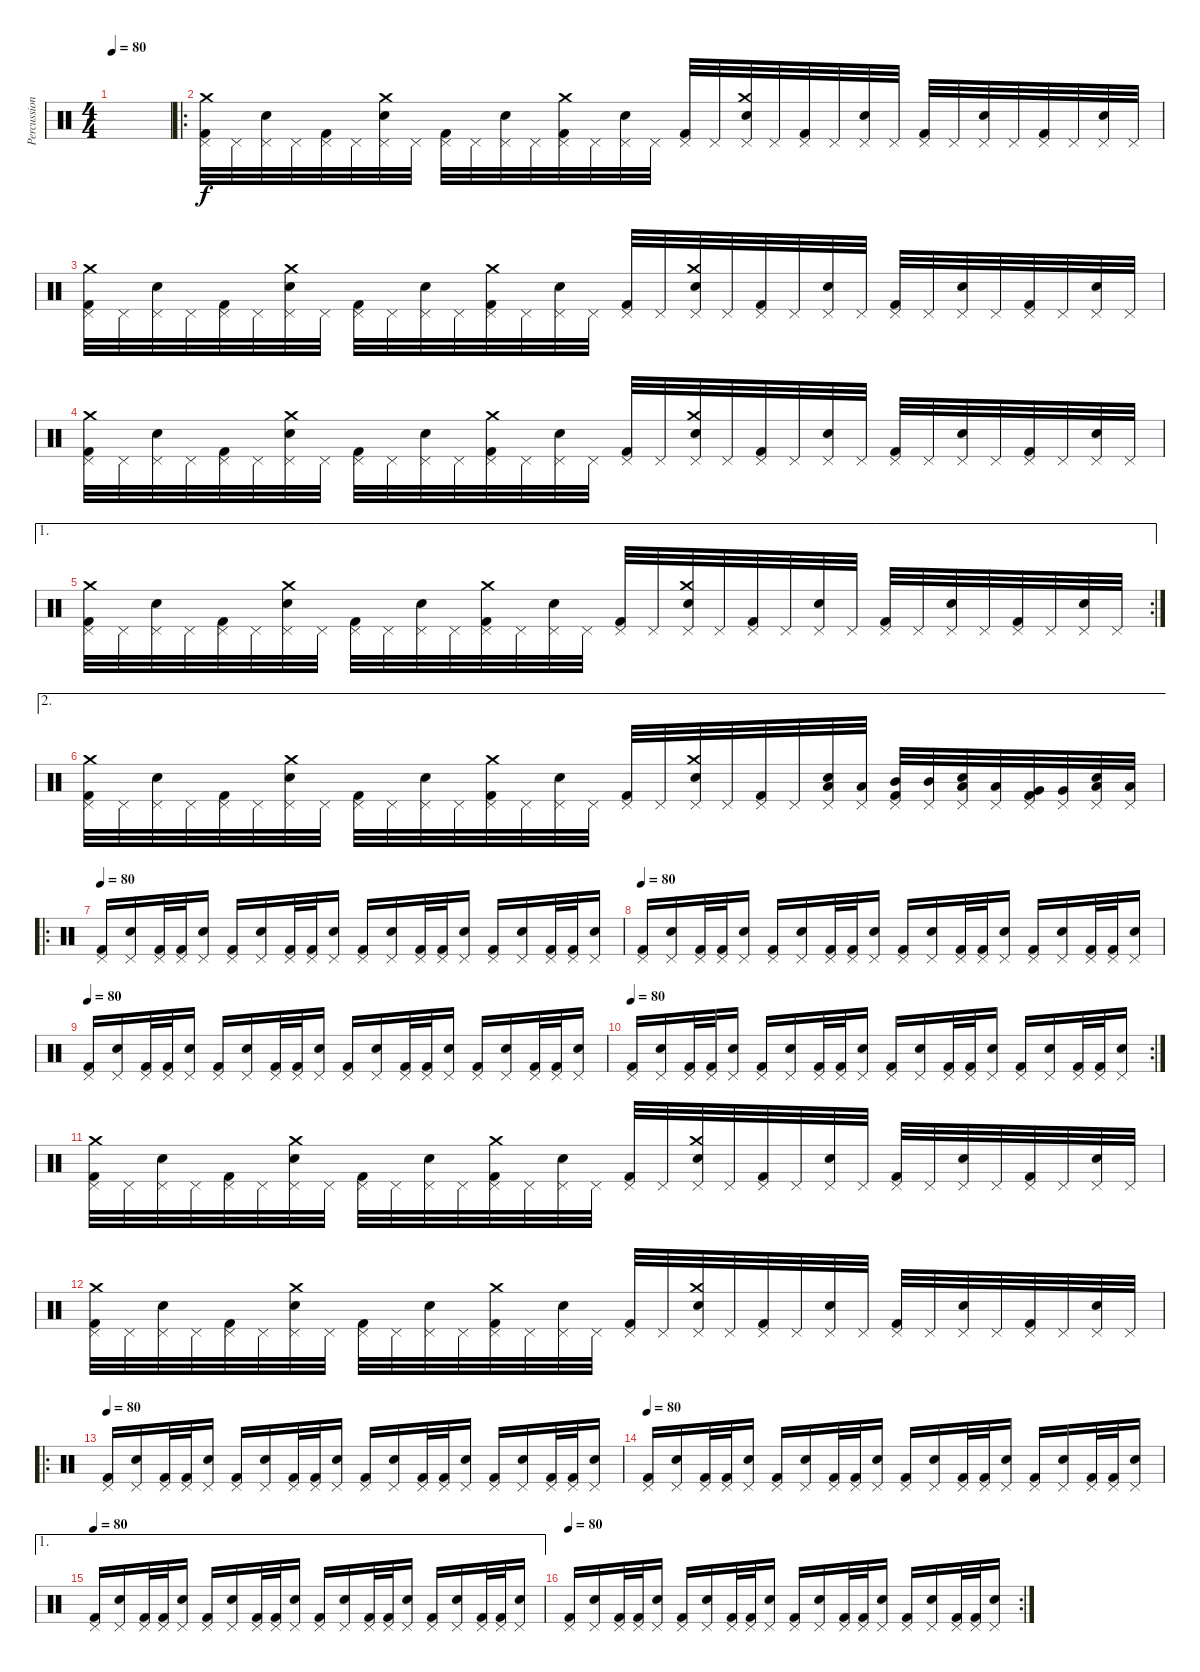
\track ("Percussion" "Percussion") {instrument percussion}
\staff {score}
\articulation defaults
\ts (4 4)
\tempo 80
\clef neutral
\ks c
|
\ro
("Kick (hit) 2" "Pedal Hi-Hat (hit)" "Crash medium (hit)").32 "Pedal Hi-Hat (hit)".32 ("Pedal Hi-Hat (hit)" "Electric Snare (hit)").32 "Pedal Hi-Hat (hit)".32 ("Kick (hit) 2" "Pedal Hi-Hat (hit)").32 "Pedal Hi-Hat (hit)".32 ("Pedal Hi-Hat (hit)" "Electric Snare (hit)" "Crash medium (hit)").32 "Pedal Hi-Hat (hit)".32 ("Kick (hit) 2" "Pedal Hi-Hat (hit)").32 "Pedal Hi-Hat (hit)".32 ("Pedal Hi-Hat (hit)" "Electric Snare (hit)").32 "Pedal Hi-Hat (hit)".32 ("Kick (hit) 2" "Pedal Hi-Hat (hit)" "Crash medium (hit)").32 "Pedal Hi-Hat (hit)".32 ("Pedal Hi-Hat (hit)" "Electric Snare (hit)").32 "Pedal Hi-Hat (hit)".32 ("Kick (hit) 2" "Pedal Hi-Hat (hit)").32 "Pedal Hi-Hat (hit)".32 ("Pedal Hi-Hat (hit)" "Electric Snare (hit)" "Crash medium (hit)").32 "Pedal Hi-Hat (hit)".32 ("Kick (hit) 2" "Pedal Hi-Hat (hit)").32 "Pedal Hi-Hat (hit)".32 ("Pedal Hi-Hat (hit)" "Electric Snare (hit)").32 "Pedal Hi-Hat (hit)".32 ("Kick (hit) 2" "Pedal Hi-Hat (hit)").32 "Pedal Hi-Hat (hit)".32 ("Pedal Hi-Hat (hit)" "Electric Snare (hit)").32 "Pedal Hi-Hat (hit)".32 ("Kick (hit) 2" "Pedal Hi-Hat (hit)").32 "Pedal Hi-Hat (hit)".32 ("Pedal Hi-Hat (hit)" "Electric Snare (hit)").32 "Pedal Hi-Hat (hit)".32 |
("Kick (hit) 2" "Pedal Hi-Hat (hit)" "Crash medium (hit)").32 "Pedal Hi-Hat (hit)".32 ("Pedal Hi-Hat (hit)" "Electric Snare (hit)").32 "Pedal Hi-Hat (hit)".32 ("Kick (hit) 2" "Pedal Hi-Hat (hit)").32 "Pedal Hi-Hat (hit)".32 ("Pedal Hi-Hat (hit)" "Electric Snare (hit)" "Crash medium (hit)").32 "Pedal Hi-Hat (hit)".32 ("Kick (hit) 2" "Pedal Hi-Hat (hit)").32 "Pedal Hi-Hat (hit)".32 ("Pedal Hi-Hat (hit)" "Electric Snare (hit)").32 "Pedal Hi-Hat (hit)".32 ("Kick (hit) 2" "Pedal Hi-Hat (hit)" "Crash medium (hit)").32 "Pedal Hi-Hat (hit)".32 ("Pedal Hi-Hat (hit)" "Electric Snare (hit)").32 "Pedal Hi-Hat (hit)".32 ("Kick (hit) 2" "Pedal Hi-Hat (hit)").32 "Pedal Hi-Hat (hit)".32 ("Pedal Hi-Hat (hit)" "Electric Snare (hit)" "Crash medium (hit)").32 "Pedal Hi-Hat (hit)".32 ("Kick (hit) 2" "Pedal Hi-Hat (hit)").32 "Pedal Hi-Hat (hit)".32 ("Pedal Hi-Hat (hit)" "Electric Snare (hit)").32 "Pedal Hi-Hat (hit)".32 ("Kick (hit) 2" "Pedal Hi-Hat (hit)").32 "Pedal Hi-Hat (hit)".32 ("Pedal Hi-Hat (hit)" "Electric Snare (hit)").32 "Pedal Hi-Hat (hit)".32 ("Kick (hit) 2" "Pedal Hi-Hat (hit)").32 "Pedal Hi-Hat (hit)".32 ("Pedal Hi-Hat (hit)" "Electric Snare (hit)").32 "Pedal Hi-Hat (hit)".32 |
("Kick (hit) 2" "Pedal Hi-Hat (hit)" "Crash medium (hit)").32 "Pedal Hi-Hat (hit)".32 ("Pedal Hi-Hat (hit)" "Electric Snare (hit)").32 "Pedal Hi-Hat (hit)".32 ("Kick (hit) 2" "Pedal Hi-Hat (hit)").32 "Pedal Hi-Hat (hit)".32 ("Pedal Hi-Hat (hit)" "Electric Snare (hit)" "Crash medium (hit)").32 "Pedal Hi-Hat (hit)".32 ("Kick (hit) 2" "Pedal Hi-Hat (hit)").32 "Pedal Hi-Hat (hit)".32 ("Pedal Hi-Hat (hit)" "Electric Snare (hit)").32 "Pedal Hi-Hat (hit)".32 ("Kick (hit) 2" "Pedal Hi-Hat (hit)" "Crash medium (hit)").32 "Pedal Hi-Hat (hit)".32 ("Pedal Hi-Hat (hit)" "Electric Snare (hit)").32 "Pedal Hi-Hat (hit)".32 ("Kick (hit) 2" "Pedal Hi-Hat (hit)").32 "Pedal Hi-Hat (hit)".32 ("Pedal Hi-Hat (hit)" "Electric Snare (hit)" "Crash medium (hit)").32 "Pedal Hi-Hat (hit)".32 ("Kick (hit) 2" "Pedal Hi-Hat (hit)").32 "Pedal Hi-Hat (hit)".32 ("Pedal Hi-Hat (hit)" "Electric Snare (hit)").32 "Pedal Hi-Hat (hit)".32 ("Kick (hit) 2" "Pedal Hi-Hat (hit)").32 "Pedal Hi-Hat (hit)".32 ("Pedal Hi-Hat (hit)" "Electric Snare (hit)").32 "Pedal Hi-Hat (hit)".32 ("Kick (hit) 2" "Pedal Hi-Hat (hit)").32 "Pedal Hi-Hat (hit)".32 ("Pedal Hi-Hat (hit)" "Electric Snare (hit)").32 "Pedal Hi-Hat (hit)".32 |
\ae 1
\rc 2
("Kick (hit) 2" "Pedal Hi-Hat (hit)" "Crash medium (hit)").32 "Pedal Hi-Hat (hit)".32 ("Pedal Hi-Hat (hit)" "Electric Snare (hit)").32 "Pedal Hi-Hat (hit)".32 ("Kick (hit) 2" "Pedal Hi-Hat (hit)").32 "Pedal Hi-Hat (hit)".32 ("Pedal Hi-Hat (hit)" "Electric Snare (hit)" "Crash medium (hit)").32 "Pedal Hi-Hat (hit)".32 ("Kick (hit) 2" "Pedal Hi-Hat (hit)").32 "Pedal Hi-Hat (hit)".32 ("Pedal Hi-Hat (hit)" "Electric Snare (hit)").32 "Pedal Hi-Hat (hit)".32 ("Kick (hit) 2" "Pedal Hi-Hat (hit)" "Crash medium (hit)").32 "Pedal Hi-Hat (hit)".32 ("Pedal Hi-Hat (hit)" "Electric Snare (hit)").32 "Pedal Hi-Hat (hit)".32 ("Kick (hit) 2" "Pedal Hi-Hat (hit)").32 "Pedal Hi-Hat (hit)".32 ("Pedal Hi-Hat (hit)" "Electric Snare (hit)" "Crash medium (hit)").32 "Pedal Hi-Hat (hit)".32 ("Kick (hit) 2" "Pedal Hi-Hat (hit)").32 "Pedal Hi-Hat (hit)".32 ("Pedal Hi-Hat (hit)" "Electric Snare (hit)").32 "Pedal Hi-Hat (hit)".32 ("Kick (hit) 2" "Pedal Hi-Hat (hit)").32 "Pedal Hi-Hat (hit)".32 ("Pedal Hi-Hat (hit)" "Electric Snare (hit)").32 "Pedal Hi-Hat (hit)".32 ("Kick (hit) 2" "Pedal Hi-Hat (hit)").32 "Pedal Hi-Hat (hit)".32 ("Pedal Hi-Hat (hit)" "Electric Snare (hit)").32 "Pedal Hi-Hat (hit)".32 |
\ae 2
("Kick (hit) 2" "Pedal Hi-Hat (hit)" "Crash medium (hit)").32 "Pedal Hi-Hat (hit)".32 ("Pedal Hi-Hat (hit)" "Electric Snare (hit)").32 "Pedal Hi-Hat (hit)".32 ("Kick (hit) 2" "Pedal Hi-Hat (hit)").32 "Pedal Hi-Hat (hit)".32 ("Pedal Hi-Hat (hit)" "Electric Snare (hit)" "Crash medium (hit)").32 "Pedal Hi-Hat (hit)".32 ("Kick (hit) 2" "Pedal Hi-Hat (hit)").32 "Pedal Hi-Hat (hit)".32 ("Pedal Hi-Hat (hit)" "Electric Snare (hit)").32 "Pedal Hi-Hat (hit)".32 ("Kick (hit) 2" "Pedal Hi-Hat (hit)" "Crash medium (hit)").32 "Pedal Hi-Hat (hit)".32 ("Pedal Hi-Hat (hit)" "Electric Snare (hit)").32 "Pedal Hi-Hat (hit)".32 ("Kick (hit) 2" "Pedal Hi-Hat (hit)").32 "Pedal Hi-Hat (hit)".32 ("Pedal Hi-Hat (hit)" "Electric Snare (hit)" "Crash medium (hit)").32 "Pedal Hi-Hat (hit)".32 ("Kick (hit) 2" "Pedal Hi-Hat (hit)").32 "Pedal Hi-Hat (hit)".32 ("Pedal Hi-Hat (hit)" "Electric Snare (hit)" "Low Tom (hit)").32 ("Pedal Hi-Hat (hit)" "Low Tom (hit)").32 ("Kick (hit) 2" "Pedal Hi-Hat (hit)" "Mid Tom (hit)").32 ("Pedal Hi-Hat (hit)" "Mid Tom (hit)").32 ("Pedal Hi-Hat (hit)" "Electric Snare (hit)" "Low Tom (hit)").32 ("Pedal Hi-Hat (hit)" "Low Tom (hit)").32 ("Kick (hit) 2" "Pedal Hi-Hat (hit)" "Very Low Tom (hit)").32 ("Pedal Hi-Hat (hit)" "Very Low Tom (hit)").32 ("Pedal Hi-Hat (hit)" "Electric Snare (hit)" "Low Floor Tom (hit)").32 ("Pedal Hi-Hat (hit)" "Low Floor Tom (hit)").32 |
\ro
\tempo 80
("Kick (hit) 2" "Pedal Hi-Hat (hit)").16 ("Pedal Hi-Hat (hit)" "Electric Snare (hit)").16 ("Kick (hit) 2" "Pedal Hi-Hat (hit)").32 ("Kick (hit) 2" "Pedal Hi-Hat (hit)").32 ("Pedal Hi-Hat (hit)" "Electric Snare (hit)").16 ("Kick (hit) 2" "Pedal Hi-Hat (hit)").16 ("Pedal Hi-Hat (hit)" "Electric Snare (hit)").16 ("Kick (hit) 2" "Pedal Hi-Hat (hit)").32 ("Kick (hit) 2" "Pedal Hi-Hat (hit)").32 ("Pedal Hi-Hat (hit)" "Electric Snare (hit)").16 ("Kick (hit) 2" "Pedal Hi-Hat (hit)").16 ("Pedal Hi-Hat (hit)" "Electric Snare (hit)").16 ("Kick (hit) 2" "Pedal Hi-Hat (hit)").32 ("Kick (hit) 2" "Pedal Hi-Hat (hit)").32 ("Pedal Hi-Hat (hit)" "Electric Snare (hit)").16 ("Kick (hit) 2" "Pedal Hi-Hat (hit)").16 ("Pedal Hi-Hat (hit)" "Electric Snare (hit)").16 ("Kick (hit) 2" "Pedal Hi-Hat (hit)").32 ("Kick (hit) 2" "Pedal Hi-Hat (hit)").32 ("Pedal Hi-Hat (hit)" "Electric Snare (hit)").16 |
\tempo 80
("Kick (hit) 2" "Pedal Hi-Hat (hit)").16 ("Pedal Hi-Hat (hit)" "Electric Snare (hit)").16 ("Kick (hit) 2" "Pedal Hi-Hat (hit)").32 ("Kick (hit) 2" "Pedal Hi-Hat (hit)").32 ("Pedal Hi-Hat (hit)" "Electric Snare (hit)").16 ("Kick (hit) 2" "Pedal Hi-Hat (hit)").16 ("Pedal Hi-Hat (hit)" "Electric Snare (hit)").16 ("Kick (hit) 2" "Pedal Hi-Hat (hit)").32 ("Kick (hit) 2" "Pedal Hi-Hat (hit)").32 ("Pedal Hi-Hat (hit)" "Electric Snare (hit)").16 ("Kick (hit) 2" "Pedal Hi-Hat (hit)").16 ("Pedal Hi-Hat (hit)" "Electric Snare (hit)").16 ("Kick (hit) 2" "Pedal Hi-Hat (hit)").32 ("Kick (hit) 2" "Pedal Hi-Hat (hit)").32 ("Pedal Hi-Hat (hit)" "Electric Snare (hit)").16 ("Kick (hit) 2" "Pedal Hi-Hat (hit)").16 ("Pedal Hi-Hat (hit)" "Electric Snare (hit)").16 ("Kick (hit) 2" "Pedal Hi-Hat (hit)").32 ("Kick (hit) 2" "Pedal Hi-Hat (hit)").32 ("Pedal Hi-Hat (hit)" "Electric Snare (hit)").16 |
\tempo 80
("Kick (hit) 2" "Pedal Hi-Hat (hit)").16 ("Pedal Hi-Hat (hit)" "Electric Snare (hit)").16 ("Kick (hit) 2" "Pedal Hi-Hat (hit)").32 ("Kick (hit) 2" "Pedal Hi-Hat (hit)").32 ("Pedal Hi-Hat (hit)" "Electric Snare (hit)").16 ("Kick (hit) 2" "Pedal Hi-Hat (hit)").16 ("Pedal Hi-Hat (hit)" "Electric Snare (hit)").16 ("Kick (hit) 2" "Pedal Hi-Hat (hit)").32 ("Kick (hit) 2" "Pedal Hi-Hat (hit)").32 ("Pedal Hi-Hat (hit)" "Electric Snare (hit)").16 ("Kick (hit) 2" "Pedal Hi-Hat (hit)").16 ("Pedal Hi-Hat (hit)" "Electric Snare (hit)").16 ("Kick (hit) 2" "Pedal Hi-Hat (hit)").32 ("Kick (hit) 2" "Pedal Hi-Hat (hit)").32 ("Pedal Hi-Hat (hit)" "Electric Snare (hit)").16 ("Kick (hit) 2" "Pedal Hi-Hat (hit)").16 ("Pedal Hi-Hat (hit)" "Electric Snare (hit)").16 ("Kick (hit) 2" "Pedal Hi-Hat (hit)").32 ("Kick (hit) 2" "Pedal Hi-Hat (hit)").32 ("Pedal Hi-Hat (hit)" "Electric Snare (hit)").16 |
\rc 2
\tempo 80
("Kick (hit) 2" "Pedal Hi-Hat (hit)").16 ("Pedal Hi-Hat (hit)" "Electric Snare (hit)").16 ("Kick (hit) 2" "Pedal Hi-Hat (hit)").32 ("Kick (hit) 2" "Pedal Hi-Hat (hit)").32 ("Pedal Hi-Hat (hit)" "Electric Snare (hit)").16 ("Kick (hit) 2" "Pedal Hi-Hat (hit)").16 ("Pedal Hi-Hat (hit)" "Electric Snare (hit)").16 ("Kick (hit) 2" "Pedal Hi-Hat (hit)").32 ("Kick (hit) 2" "Pedal Hi-Hat (hit)").32 ("Pedal Hi-Hat (hit)" "Electric Snare (hit)").16 ("Kick (hit) 2" "Pedal Hi-Hat (hit)").16 ("Pedal Hi-Hat (hit)" "Electric Snare (hit)").16 ("Kick (hit) 2" "Pedal Hi-Hat (hit)").32 ("Kick (hit) 2" "Pedal Hi-Hat (hit)").32 ("Pedal Hi-Hat (hit)" "Electric Snare (hit)").16 ("Kick (hit) 2" "Pedal Hi-Hat (hit)").16 ("Pedal Hi-Hat (hit)" "Electric Snare (hit)").16 ("Kick (hit) 2" "Pedal Hi-Hat (hit)").32 ("Kick (hit) 2" "Pedal Hi-Hat (hit)").32 ("Pedal Hi-Hat (hit)" "Electric Snare (hit)").16 |
("Kick (hit) 2" "Pedal Hi-Hat (hit)" "Crash medium (hit)").32 "Pedal Hi-Hat (hit)".32 ("Pedal Hi-Hat (hit)" "Electric Snare (hit)").32 "Pedal Hi-Hat (hit)".32 ("Kick (hit) 2" "Pedal Hi-Hat (hit)").32 "Pedal Hi-Hat (hit)".32 ("Pedal Hi-Hat (hit)" "Electric Snare (hit)" "Crash medium (hit)").32 "Pedal Hi-Hat (hit)".32 ("Kick (hit) 2" "Pedal Hi-Hat (hit)").32 "Pedal Hi-Hat (hit)".32 ("Pedal Hi-Hat (hit)" "Electric Snare (hit)").32 "Pedal Hi-Hat (hit)".32 ("Kick (hit) 2" "Pedal Hi-Hat (hit)" "Crash medium (hit)").32 "Pedal Hi-Hat (hit)".32 ("Pedal Hi-Hat (hit)" "Electric Snare (hit)").32 "Pedal Hi-Hat (hit)".32 ("Kick (hit) 2" "Pedal Hi-Hat (hit)").32 "Pedal Hi-Hat (hit)".32 ("Pedal Hi-Hat (hit)" "Electric Snare (hit)" "Crash medium (hit)").32 "Pedal Hi-Hat (hit)".32 ("Kick (hit) 2" "Pedal Hi-Hat (hit)").32 "Pedal Hi-Hat (hit)".32 ("Pedal Hi-Hat (hit)" "Electric Snare (hit)").32 "Pedal Hi-Hat (hit)".32 ("Kick (hit) 2" "Pedal Hi-Hat (hit)").32 "Pedal Hi-Hat (hit)".32 ("Pedal Hi-Hat (hit)" "Electric Snare (hit)").32 "Pedal Hi-Hat (hit)".32 ("Kick (hit) 2" "Pedal Hi-Hat (hit)").32 "Pedal Hi-Hat (hit)".32 ("Pedal Hi-Hat (hit)" "Electric Snare (hit)").32 "Pedal Hi-Hat (hit)".32 |
("Kick (hit) 2" "Pedal Hi-Hat (hit)" "Crash medium (hit)").32 "Pedal Hi-Hat (hit)".32 ("Pedal Hi-Hat (hit)" "Electric Snare (hit)").32 "Pedal Hi-Hat (hit)".32 ("Kick (hit) 2" "Pedal Hi-Hat (hit)").32 "Pedal Hi-Hat (hit)".32 ("Pedal Hi-Hat (hit)" "Electric Snare (hit)" "Crash medium (hit)").32 "Pedal Hi-Hat (hit)".32 ("Kick (hit) 2" "Pedal Hi-Hat (hit)").32 "Pedal Hi-Hat (hit)".32 ("Pedal Hi-Hat (hit)" "Electric Snare (hit)").32 "Pedal Hi-Hat (hit)".32 ("Kick (hit) 2" "Pedal Hi-Hat (hit)" "Crash medium (hit)").32 "Pedal Hi-Hat (hit)".32 ("Pedal Hi-Hat (hit)" "Electric Snare (hit)").32 "Pedal Hi-Hat (hit)".32 ("Kick (hit) 2" "Pedal Hi-Hat (hit)").32 "Pedal Hi-Hat (hit)".32 ("Pedal Hi-Hat (hit)" "Electric Snare (hit)" "Crash medium (hit)").32 "Pedal Hi-Hat (hit)".32 ("Kick (hit) 2" "Pedal Hi-Hat (hit)").32 "Pedal Hi-Hat (hit)".32 ("Pedal Hi-Hat (hit)" "Electric Snare (hit)").32 "Pedal Hi-Hat (hit)".32 ("Kick (hit) 2" "Pedal Hi-Hat (hit)").32 "Pedal Hi-Hat (hit)".32 ("Pedal Hi-Hat (hit)" "Electric Snare (hit)").32 "Pedal Hi-Hat (hit)".32 ("Kick (hit) 2" "Pedal Hi-Hat (hit)").32 "Pedal Hi-Hat (hit)".32 ("Pedal Hi-Hat (hit)" "Electric Snare (hit)").32 "Pedal Hi-Hat (hit)".32 |
\ro
\tempo 80
("Kick (hit) 2" "Pedal Hi-Hat (hit)").16 ("Pedal Hi-Hat (hit)" "Electric Snare (hit)").16 ("Kick (hit) 2" "Pedal Hi-Hat (hit)").32 ("Kick (hit) 2" "Pedal Hi-Hat (hit)").32 ("Pedal Hi-Hat (hit)" "Electric Snare (hit)").16 ("Kick (hit) 2" "Pedal Hi-Hat (hit)").16 ("Pedal Hi-Hat (hit)" "Electric Snare (hit)").16 ("Kick (hit) 2" "Pedal Hi-Hat (hit)").32 ("Kick (hit) 2" "Pedal Hi-Hat (hit)").32 ("Pedal Hi-Hat (hit)" "Electric Snare (hit)").16 ("Kick (hit) 2" "Pedal Hi-Hat (hit)").16 ("Pedal Hi-Hat (hit)" "Electric Snare (hit)").16 ("Kick (hit) 2" "Pedal Hi-Hat (hit)").32 ("Kick (hit) 2" "Pedal Hi-Hat (hit)").32 ("Pedal Hi-Hat (hit)" "Electric Snare (hit)").16 ("Kick (hit) 2" "Pedal Hi-Hat (hit)").16 ("Pedal Hi-Hat (hit)" "Electric Snare (hit)").16 ("Kick (hit) 2" "Pedal Hi-Hat (hit)").32 ("Kick (hit) 2" "Pedal Hi-Hat (hit)").32 ("Pedal Hi-Hat (hit)" "Electric Snare (hit)").16 |
\tempo 80
("Kick (hit) 2" "Pedal Hi-Hat (hit)").16 ("Pedal Hi-Hat (hit)" "Electric Snare (hit)").16 ("Kick (hit) 2" "Pedal Hi-Hat (hit)").32 ("Kick (hit) 2" "Pedal Hi-Hat (hit)").32 ("Pedal Hi-Hat (hit)" "Electric Snare (hit)").16 ("Kick (hit) 2" "Pedal Hi-Hat (hit)").16 ("Pedal Hi-Hat (hit)" "Electric Snare (hit)").16 ("Kick (hit) 2" "Pedal Hi-Hat (hit)").32 ("Kick (hit) 2" "Pedal Hi-Hat (hit)").32 ("Pedal Hi-Hat (hit)" "Electric Snare (hit)").16 ("Kick (hit) 2" "Pedal Hi-Hat (hit)").16 ("Pedal Hi-Hat (hit)" "Electric Snare (hit)").16 ("Kick (hit) 2" "Pedal Hi-Hat (hit)").32 ("Kick (hit) 2" "Pedal Hi-Hat (hit)").32 ("Pedal Hi-Hat (hit)" "Electric Snare (hit)").16 ("Kick (hit) 2" "Pedal Hi-Hat (hit)").16 ("Pedal Hi-Hat (hit)" "Electric Snare (hit)").16 ("Kick (hit) 2" "Pedal Hi-Hat (hit)").32 ("Kick (hit) 2" "Pedal Hi-Hat (hit)").32 ("Pedal Hi-Hat (hit)" "Electric Snare (hit)").16 |
\ae 1
\tempo 80
("Kick (hit) 2" "Pedal Hi-Hat (hit)").16 ("Pedal Hi-Hat (hit)" "Electric Snare (hit)").16 ("Kick (hit) 2" "Pedal Hi-Hat (hit)").32 ("Kick (hit) 2" "Pedal Hi-Hat (hit)").32 ("Pedal Hi-Hat (hit)" "Electric Snare (hit)").16 ("Kick (hit) 2" "Pedal Hi-Hat (hit)").16 ("Pedal Hi-Hat (hit)" "Electric Snare (hit)").16 ("Kick (hit) 2" "Pedal Hi-Hat (hit)").32 ("Kick (hit) 2" "Pedal Hi-Hat (hit)").32 ("Pedal Hi-Hat (hit)" "Electric Snare (hit)").16 ("Kick (hit) 2" "Pedal Hi-Hat (hit)").16 ("Pedal Hi-Hat (hit)" "Electric Snare (hit)").16 ("Kick (hit) 2" "Pedal Hi-Hat (hit)").32 ("Kick (hit) 2" "Pedal Hi-Hat (hit)").32 ("Pedal Hi-Hat (hit)" "Electric Snare (hit)").16 ("Kick (hit) 2" "Pedal Hi-Hat (hit)").16 ("Pedal Hi-Hat (hit)" "Electric Snare (hit)").16 ("Kick (hit) 2" "Pedal Hi-Hat (hit)").32 ("Kick (hit) 2" "Pedal Hi-Hat (hit)").32 ("Pedal Hi-Hat (hit)" "Electric Snare (hit)").16 |
\rc 2
\tempo 80
("Kick (hit) 2" "Pedal Hi-Hat (hit)").16 ("Pedal Hi-Hat (hit)" "Electric Snare (hit)").16 ("Kick (hit) 2" "Pedal Hi-Hat (hit)").32 ("Kick (hit) 2" "Pedal Hi-Hat (hit)").32 ("Pedal Hi-Hat (hit)" "Electric Snare (hit)").16 ("Kick (hit) 2" "Pedal Hi-Hat (hit)").16 ("Pedal Hi-Hat (hit)" "Electric Snare (hit)").16 ("Kick (hit) 2" "Pedal Hi-Hat (hit)").32 ("Kick (hit) 2" "Pedal Hi-Hat (hit)").32 ("Pedal Hi-Hat (hit)" "Electric Snare (hit)").16 ("Kick (hit) 2" "Pedal Hi-Hat (hit)").16 ("Pedal Hi-Hat (hit)" "Electric Snare (hit)").16 ("Kick (hit) 2" "Pedal Hi-Hat (hit)").32 ("Kick (hit) 2" "Pedal Hi-Hat (hit)").32 ("Pedal Hi-Hat (hit)" "Electric Snare (hit)").16 ("Kick (hit) 2" "Pedal Hi-Hat (hit)").16 ("Pedal Hi-Hat (hit)" "Electric Snare (hit)").16 ("Kick (hit) 2" "Pedal Hi-Hat (hit)").32 ("Kick (hit) 2" "Pedal Hi-Hat (hit)").32 ("Pedal Hi-Hat (hit)" "Electric Snare (hit)").16
